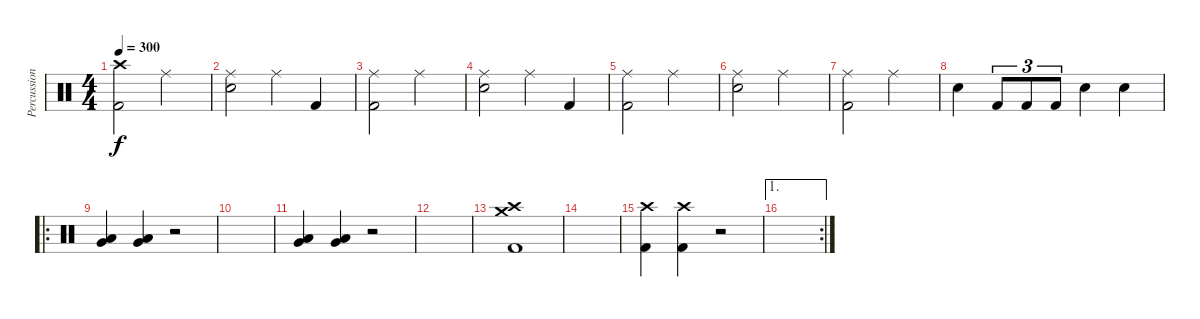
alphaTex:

\track ("Percussion" "Percussion") {instrument percussion}
\staff {score}
\articulation defaults
\ts (4 4)
\tempo 300
\clef neutral
\ks c
("Crash high (hit)" "Kick (hit) 2").2{dy f} "Ride (middle)".2 |
("Ride (middle)" "Snare (hit) 2").2 "Ride (middle)".4 "Kick (hit) 2".4 |
("Ride (middle)" "Kick (hit) 2").2 "Ride (middle)".2 |
("Ride (middle)" "Snare (hit) 2").2 "Ride (middle)".4 "Kick (hit) 2".4 |
("Ride (middle)" "Kick (hit) 2").2 "Ride (middle)".2 |
("Ride (middle)" "Snare (hit) 2").2 "Ride (middle)".2 |
("Ride (middle)" "Kick (hit) 2").2 "Ride (middle)".2 |
"Snare (hit) 2".4 "Kick (hit) 2".8{tu (3 2)} "Kick (hit) 2".8{tu (3 2)} "Kick (hit) 2".8{tu (3 2)} "Snare (hit) 2".4 "Snare (hit) 2".4 |
\ro
("Very Low Tom (hit)" "Low Floor Tom (hit)").4 ("Very Low Tom (hit)" "Low Floor Tom (hit)").4 r.2 |
|
("Very Low Tom (hit)" "Low Floor Tom (hit)").4 ("Very Low Tom (hit)" "Low Floor Tom (hit)").4 r.2 |
|
("Crash medium (hit)" "Crash high (hit)" "Kick (hit) 2").1 |
|
("Crash high (hit)" "Kick (hit) 2").4 ("Crash high (hit)" "Kick (hit) 2").4 r.2 |
\ae 1
\rc 2
